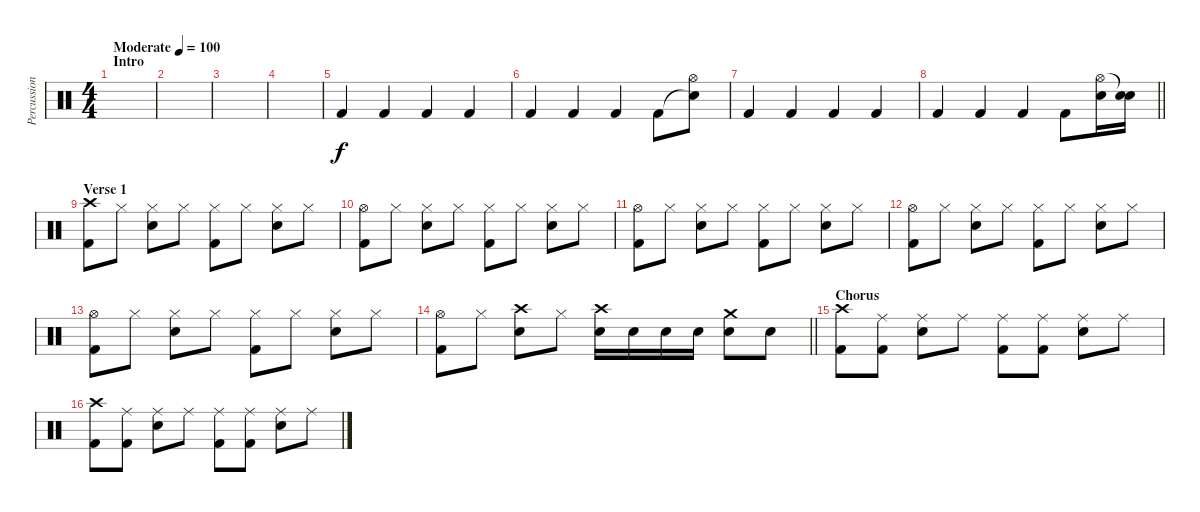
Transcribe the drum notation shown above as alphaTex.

\track ("Percussion" "Percussion") {instrument percussion}
\staff {score}
\articulation defaults
\ts (4 4)
\section ("" "Intro")
\tempo (100 "Moderate")
\clef neutral
\ks c
|
|
|
|
"Kick (hit) 2".4 "Kick (hit) 2".4 "Kick (hit) 2".4 "Kick (hit) 2".4 |
"Kick (hit) 2".4 "Kick (hit) 2".4 "Kick (hit) 2".4 "Kick (hit) 2".8 ("Snare (hit)"{t} "Hi-Hat (open)").8 |
"Kick (hit) 2".4 "Kick (hit) 2".4 "Kick (hit) 2".4 "Kick (hit) 2".4 |
\barLineRight lightlight "Kick (hit) 2".4 "Kick (hit) 2".4 "Kick (hit) 2".4 "Kick (hit) 2".8
("Snare (hit) 2" "Hi-Hat (open)").16 ("Snare (hit) 2" "Snare (hit)"{t}).16 |
\section ("" "Verse 1")
("Crash high (hit)" "Kick (hit) 2").8 "Hi-Hat (closed)".8 ("Hi-Hat (closed)" "Snare (hit) 2").8 "Hi-Hat (closed)".8 ("Hi-Hat (closed)" "Kick (hit) 2").8 "Hi-Hat (closed)".8 ("Hi-Hat (closed)" "Snare (hit) 2").8 "Hi-Hat (closed)".8 |
("Hi-Hat (open)" "Kick (hit) 2").8 "Hi-Hat (closed)".8 ("Hi-Hat (closed)" "Snare (hit) 2").8 "Hi-Hat (closed)".8 ("Hi-Hat (closed)" "Kick (hit) 2").8 "Hi-Hat (closed)".8 ("Hi-Hat (closed)" "Snare (hit) 2").8 "Hi-Hat (closed)".8 |
("Hi-Hat (open)" "Kick (hit) 2").8 "Hi-Hat (closed)".8 ("Hi-Hat (closed)" "Snare (hit) 2").8 "Hi-Hat (closed)".8 ("Hi-Hat (closed)" "Kick (hit) 2").8 "Hi-Hat (closed)".8 ("Hi-Hat (closed)" "Snare (hit) 2").8 "Hi-Hat (closed)".8 |
("Hi-Hat (open)" "Kick (hit) 2").8 "Hi-Hat (closed)".8 ("Hi-Hat (closed)" "Snare (hit) 2").8 "Hi-Hat (closed)".8 ("Hi-Hat (closed)" "Kick (hit) 2").8 "Hi-Hat (closed)".8 ("Hi-Hat (closed)" "Snare (hit) 2").8 "Hi-Hat (closed)".8 |
("Hi-Hat (open)" "Kick (hit) 2").8 "Hi-Hat (closed)".8 ("Hi-Hat (closed)" "Snare (hit) 2").8 "Hi-Hat (closed)".8 ("Hi-Hat (closed)" "Kick (hit) 2").8 "Hi-Hat (closed)".8 ("Hi-Hat (closed)" "Snare (hit) 2").8 "Hi-Hat (closed)".8 |
\barLineRight lightlight
("Hi-Hat (open)" "Kick (hit) 2").8 "Hi-Hat (closed)".8 ("Crash high (hit)" "Snare (hit) 2").8 "Hi-Hat (closed)".8 ("Snare (hit) 2" "Crash high (hit)").16 "Snare (hit) 2".16 "Snare (hit) 2".16 "Snare (hit) 2".16 ("Snare (hit) 2" "Crash medium (hit)").8 "Snare (hit) 2".8 |
\section ("" "Chorus")
("Crash high (hit)" "Kick (hit) 2").8 ("Ride (middle)" "Kick (hit) 2").8 ("Ride (middle)" "Snare (hit) 2").8 "Ride (middle)".8 ("Ride (middle)" "Kick (hit) 2").8 ("Ride (middle)" "Kick (hit) 2").8 ("Ride (middle)" "Snare (hit) 2").8 "Ride (middle)".8 |
("Crash high (hit)" "Kick (hit) 2").8 ("Ride (middle)" "Kick (hit) 2").8 ("Ride (middle)" "Snare (hit) 2").8 "Ride (middle)".8 ("Ride (middle)" "Kick (hit) 2").8 ("Ride (middle)" "Kick (hit) 2").8 ("Ride (middle)" "Snare (hit) 2").8 "Ride (middle)".8
